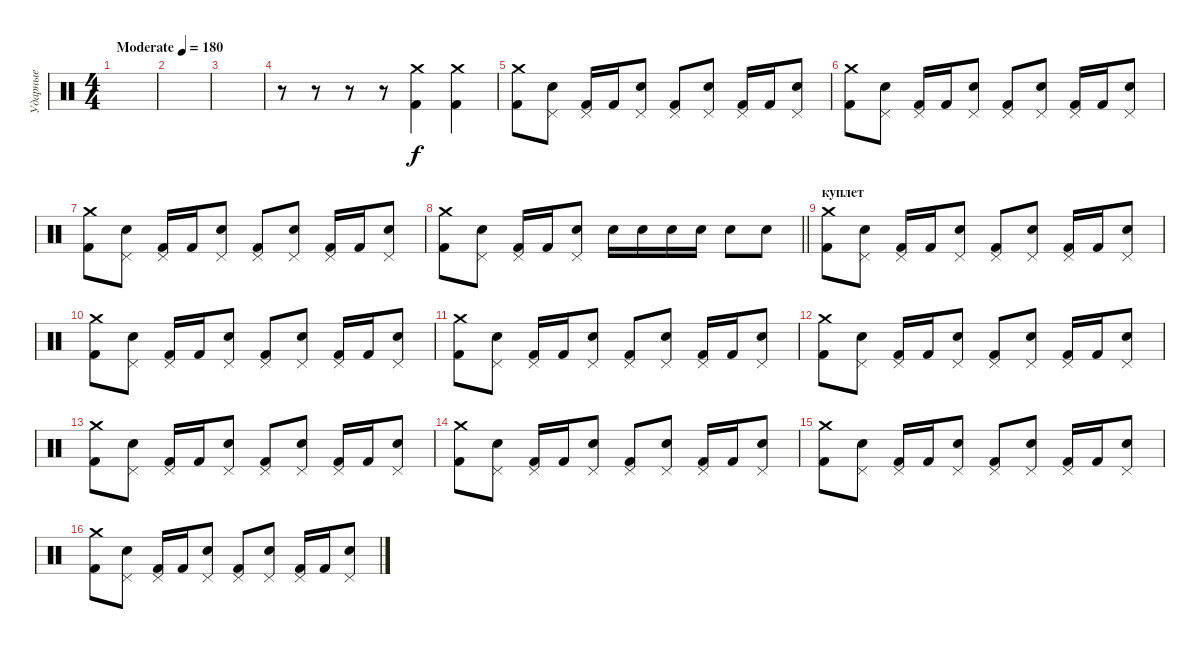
\track ("Ударные" "Ударные") {instrument percussion}
\staff {score}
\articulation defaults
\ts (4 4)
\tempo (180 "Moderate")
\clef neutral
\ks c
|
|
|
r.8 r.8 r.8 r.8 ("Crash medium (hit)" "Kick (hit) 2").4 ("Crash medium (hit)" "Kick (hit) 2").4 |
("Crash medium (hit)" "Kick (hit) 2").8 ("Pedal Hi-Hat (hit)" "Electric Snare (hit)").8 ("Pedal Hi-Hat (hit)" "Kick (hit) 2").16 "Kick (hit) 2".16 ("Pedal Hi-Hat (hit)" "Electric Snare (hit)").8 ("Pedal Hi-Hat (hit)" "Kick (hit) 2").8 ("Pedal Hi-Hat (hit)" "Electric Snare (hit)").8 ("Pedal Hi-Hat (hit)" "Kick (hit) 2").16 "Kick (hit) 2".16 ("Pedal Hi-Hat (hit)" "Electric Snare (hit)").8 |
("Crash medium (hit)" "Kick (hit) 2").8 ("Pedal Hi-Hat (hit)" "Electric Snare (hit)").8 ("Pedal Hi-Hat (hit)" "Kick (hit) 2").16 "Kick (hit) 2".16 ("Pedal Hi-Hat (hit)" "Electric Snare (hit)").8 ("Pedal Hi-Hat (hit)" "Kick (hit) 2").8 ("Pedal Hi-Hat (hit)" "Electric Snare (hit)").8 ("Pedal Hi-Hat (hit)" "Kick (hit) 2").16 "Kick (hit) 2".16 ("Pedal Hi-Hat (hit)" "Electric Snare (hit)").8 |
("Crash medium (hit)" "Kick (hit) 2").8 ("Pedal Hi-Hat (hit)" "Electric Snare (hit)").8 ("Pedal Hi-Hat (hit)" "Kick (hit) 2").16 "Kick (hit) 2".16 ("Pedal Hi-Hat (hit)" "Electric Snare (hit)").8 ("Pedal Hi-Hat (hit)" "Kick (hit) 2").8 ("Pedal Hi-Hat (hit)" "Electric Snare (hit)").8 ("Pedal Hi-Hat (hit)" "Kick (hit) 2").16 "Kick (hit) 2".16 ("Pedal Hi-Hat (hit)" "Electric Snare (hit)").8 |
\barLineRight lightlight
("Crash medium (hit)" "Kick (hit) 2").8 ("Pedal Hi-Hat (hit)" "Electric Snare (hit)").8 ("Pedal Hi-Hat (hit)" "Kick (hit) 2").16 "Kick (hit) 2".16 ("Pedal Hi-Hat (hit)" "Electric Snare (hit)").8 "Electric Snare (hit)".16 "Electric Snare (hit)".16 "Electric Snare (hit)".16 "Electric Snare (hit)".16 "Electric Snare (hit)".8 "Electric Snare (hit)".8 |
\section ("" "куплет")
("Crash medium (hit)" "Kick (hit) 2").8 ("Pedal Hi-Hat (hit)" "Electric Snare (hit)").8 ("Pedal Hi-Hat (hit)" "Kick (hit) 2").16 "Kick (hit) 2".16 ("Pedal Hi-Hat (hit)" "Electric Snare (hit)").8 ("Pedal Hi-Hat (hit)" "Kick (hit) 2").8 ("Pedal Hi-Hat (hit)" "Electric Snare (hit)").8 ("Pedal Hi-Hat (hit)" "Kick (hit) 2").16 "Kick (hit) 2".16 ("Pedal Hi-Hat (hit)" "Electric Snare (hit)").8 |
("Crash medium (hit)" "Kick (hit) 2").8 ("Pedal Hi-Hat (hit)" "Electric Snare (hit)").8 ("Pedal Hi-Hat (hit)" "Kick (hit) 2").16 "Kick (hit) 2".16 ("Pedal Hi-Hat (hit)" "Electric Snare (hit)").8 ("Pedal Hi-Hat (hit)" "Kick (hit) 2").8 ("Pedal Hi-Hat (hit)" "Electric Snare (hit)").8 ("Pedal Hi-Hat (hit)" "Kick (hit) 2").16 "Kick (hit) 2".16 ("Pedal Hi-Hat (hit)" "Electric Snare (hit)").8 |
("Crash medium (hit)" "Kick (hit) 2").8 ("Pedal Hi-Hat (hit)" "Electric Snare (hit)").8 ("Pedal Hi-Hat (hit)" "Kick (hit) 2").16 "Kick (hit) 2".16 ("Pedal Hi-Hat (hit)" "Electric Snare (hit)").8 ("Pedal Hi-Hat (hit)" "Kick (hit) 2").8 ("Pedal Hi-Hat (hit)" "Electric Snare (hit)").8 ("Pedal Hi-Hat (hit)" "Kick (hit) 2").16 "Kick (hit) 2".16 ("Pedal Hi-Hat (hit)" "Electric Snare (hit)").8 |
("Crash medium (hit)" "Kick (hit) 2").8 ("Pedal Hi-Hat (hit)" "Electric Snare (hit)").8 ("Pedal Hi-Hat (hit)" "Kick (hit) 2").16 "Kick (hit) 2".16 ("Pedal Hi-Hat (hit)" "Electric Snare (hit)").8 ("Pedal Hi-Hat (hit)" "Kick (hit) 2").8 ("Pedal Hi-Hat (hit)" "Electric Snare (hit)").8 ("Pedal Hi-Hat (hit)" "Kick (hit) 2").16 "Kick (hit) 2".16 ("Pedal Hi-Hat (hit)" "Electric Snare (hit)").8 |
("Crash medium (hit)" "Kick (hit) 2").8 ("Pedal Hi-Hat (hit)" "Electric Snare (hit)").8 ("Pedal Hi-Hat (hit)" "Kick (hit) 2").16 "Kick (hit) 2".16 ("Pedal Hi-Hat (hit)" "Electric Snare (hit)").8 ("Pedal Hi-Hat (hit)" "Kick (hit) 2").8 ("Pedal Hi-Hat (hit)" "Electric Snare (hit)").8 ("Pedal Hi-Hat (hit)" "Kick (hit) 2").16 "Kick (hit) 2".16 ("Pedal Hi-Hat (hit)" "Electric Snare (hit)").8 |
("Crash medium (hit)" "Kick (hit) 2").8 ("Pedal Hi-Hat (hit)" "Electric Snare (hit)").8 ("Pedal Hi-Hat (hit)" "Kick (hit) 2").16 "Kick (hit) 2".16 ("Pedal Hi-Hat (hit)" "Electric Snare (hit)").8 ("Pedal Hi-Hat (hit)" "Kick (hit) 2").8 ("Pedal Hi-Hat (hit)" "Electric Snare (hit)").8 ("Pedal Hi-Hat (hit)" "Kick (hit) 2").16 "Kick (hit) 2".16 ("Pedal Hi-Hat (hit)" "Electric Snare (hit)").8 |
("Crash medium (hit)" "Kick (hit) 2").8 ("Pedal Hi-Hat (hit)" "Electric Snare (hit)").8 ("Pedal Hi-Hat (hit)" "Kick (hit) 2").16 "Kick (hit) 2".16 ("Pedal Hi-Hat (hit)" "Electric Snare (hit)").8 ("Pedal Hi-Hat (hit)" "Kick (hit) 2").8 ("Pedal Hi-Hat (hit)" "Electric Snare (hit)").8 ("Pedal Hi-Hat (hit)" "Kick (hit) 2").16 "Kick (hit) 2".16 ("Pedal Hi-Hat (hit)" "Electric Snare (hit)").8 |
("Crash medium (hit)" "Kick (hit) 2").8 ("Pedal Hi-Hat (hit)" "Electric Snare (hit)").8 ("Pedal Hi-Hat (hit)" "Kick (hit) 2").16 "Kick (hit) 2".16 ("Pedal Hi-Hat (hit)" "Electric Snare (hit)").8 ("Pedal Hi-Hat (hit)" "Kick (hit) 2").8 ("Pedal Hi-Hat (hit)" "Electric Snare (hit)").8 ("Pedal Hi-Hat (hit)" "Kick (hit) 2").16 "Kick (hit) 2".16 ("Pedal Hi-Hat (hit)" "Electric Snare (hit)").8
